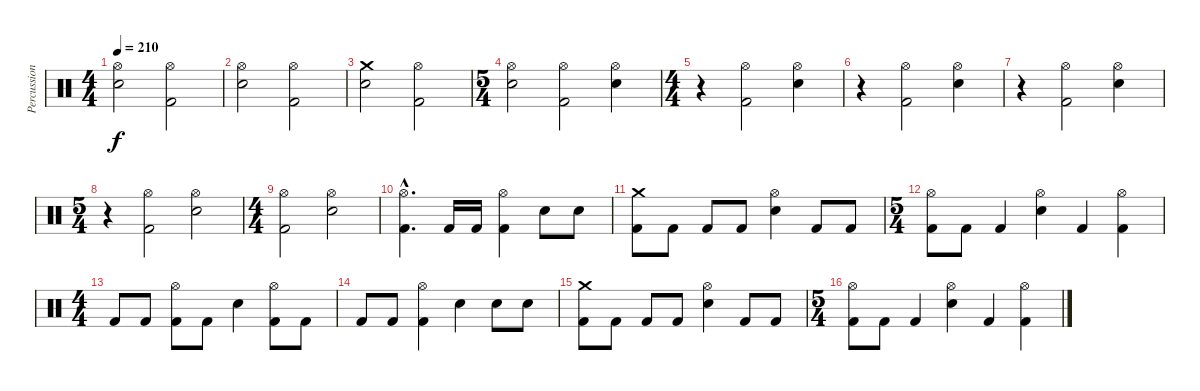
\track ("Percussion" "Percussion") {instrument percussion}
\staff {score}
\articulation defaults
\ts (4 4)
\tempo 210
\clef neutral
\ks c
("Hi-Hat (open)" "Electric Snare (hit)").2{dy f} ("Hi-Hat (open)" "Kick (hit) 2").2 |
("Hi-Hat (open)" "Electric Snare (hit)").2 ("Hi-Hat (open)" "Kick (hit) 2").2 |
("Crash medium (hit)" "Electric Snare (hit)").2 ("Hi-Hat (open)" "Kick (hit) 2").2 |
\ts (5 4)
("Hi-Hat (open)" "Electric Snare (hit)").2 ("Hi-Hat (open)" "Kick (hit) 2").2 ("Hi-Hat (open)" "Electric Snare (hit)").4 |
\ts (4 4)
r.4 ("Hi-Hat (open)" "Kick (hit) 2").2 ("Hi-Hat (open)" "Electric Snare (hit)").4 |
r.4 ("Hi-Hat (open)" "Kick (hit) 2").2 ("Hi-Hat (open)" "Electric Snare (hit)").4 |
r.4 ("Hi-Hat (open)" "Kick (hit) 2").2 ("Hi-Hat (open)" "Electric Snare (hit)").4 |
\ts (5 4)
r.4 ("Hi-Hat (open)" "Kick (hit) 2").2 ("Hi-Hat (open)" "Electric Snare (hit)").2 |
\ts (4 4)
("Hi-Hat (open)" "Kick (hit) 2").2 ("Hi-Hat (open)" "Electric Snare (hit)").2 |
("Hi-Hat (open)"{hac} "Kick (hit) 2"{hac}).4{d} "Kick (hit) 2".16 "Kick (hit) 2".16 ("Hi-Hat (open)" "Kick (hit) 2").4 "Electric Snare (hit)".8 "Electric Snare (hit)".8 |
\section ("" "")
("Crash medium (hit)" "Kick (hit) 2").8 "Kick (hit) 2".8 "Kick (hit) 2".8 "Kick (hit) 2".8 ("Hi-Hat (open)" "Electric Snare (hit)").4 "Kick (hit) 2".8 "Kick (hit) 2".8 |
\ts (5 4)
("Hi-Hat (open)" "Kick (hit) 2").8 "Kick (hit) 2".8 "Kick (hit) 2".4 ("Hi-Hat (open)" "Electric Snare (hit)").4 "Kick (hit) 2".4 ("Hi-Hat (open)" "Kick (hit) 2").4 |
\ts (4 4)
"Kick (hit) 2".8 "Kick (hit) 2".8 ("Hi-Hat (open)" "Kick (hit) 2").8 "Kick (hit) 2".8 "Electric Snare (hit)".4 ("Hi-Hat (open)" "Kick (hit) 2").8 "Kick (hit) 2".8 |
"Kick (hit) 2".8 "Kick (hit) 2".8 ("Hi-Hat (open)" "Kick (hit) 2").4 "Electric Snare (hit)".4 "Electric Snare (hit)".8 "Electric Snare (hit)".8 |
("Crash medium (hit)" "Kick (hit) 2").8 "Kick (hit) 2".8 "Kick (hit) 2".8 "Kick (hit) 2".8 ("Hi-Hat (open)" "Electric Snare (hit)").4 "Kick (hit) 2".8 "Kick (hit) 2".8 |
\ts (5 4)
("Hi-Hat (open)" "Kick (hit) 2").8 "Kick (hit) 2".8 "Kick (hit) 2".4 ("Hi-Hat (open)" "Electric Snare (hit)").4 "Kick (hit) 2".4 ("Hi-Hat (open)" "Kick (hit) 2").4
